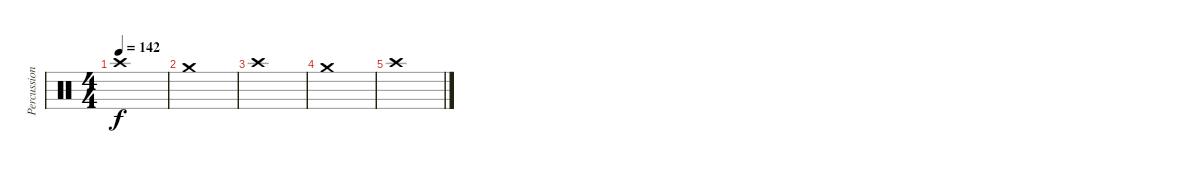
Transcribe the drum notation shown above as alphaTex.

\track ("Percussion" "Percussion") {instrument percussion}
\staff {score}
\articulation defaults
\ts (4 4)
\tempo 142
\clef neutral
\ks c "Crash high (hit)".1{dy f}
|
"Crash medium (hit)".1 |
"Crash high (hit)".1 |
"Crash medium (hit)".1 |
"Crash high (hit)".1
